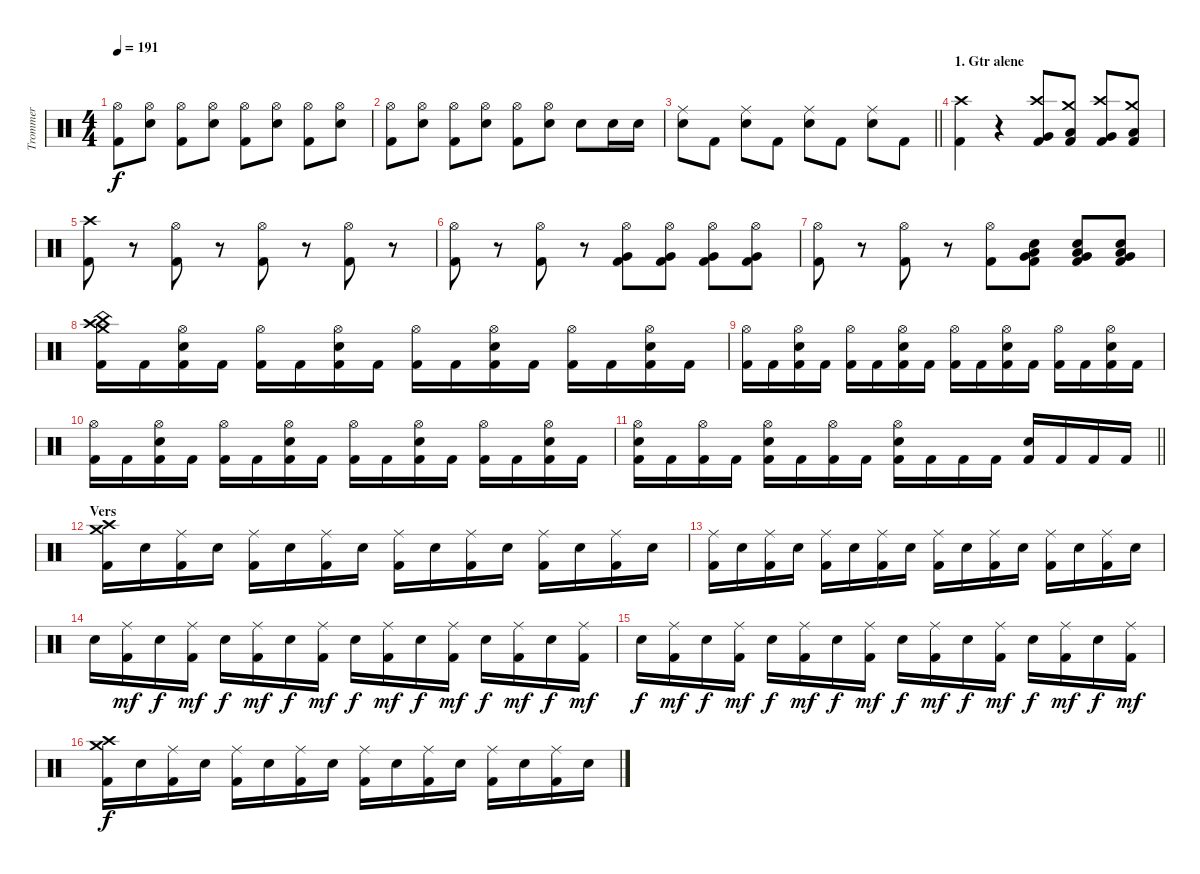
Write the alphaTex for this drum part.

\track ("Trommer" "Trommer") {instrument percussion}
\staff {score}
\articulation defaults
\ts (4 4)
\tempo 191
\clef neutral
\ks c
("Hi-Hat (open)" "Kick (hit) 2").8{dy f} ("Hi-Hat (open)" "Snare (hit) 2").8 ("Hi-Hat (open)" "Kick (hit) 2").8 ("Hi-Hat (open)" "Snare (hit) 2").8 ("Hi-Hat (open)" "Kick (hit) 2").8 ("Hi-Hat (open)" "Snare (hit) 2").8 ("Hi-Hat (open)" "Kick (hit) 2").8 ("Hi-Hat (open)" "Snare (hit) 2").8 |
("Hi-Hat (open)" "Kick (hit) 2").8 ("Hi-Hat (open)" "Snare (hit) 2").8 ("Hi-Hat (open)" "Kick (hit) 2").8 ("Hi-Hat (open)" "Snare (hit) 2").8 ("Hi-Hat (open)" "Kick (hit) 2").8 ("Hi-Hat (open)" "Snare (hit) 2").8 "Snare (hit) 2".8 "Snare (hit) 2".16 "Snare (hit) 2".16 |
\barLineRight lightlight
("Ride (middle)" "Snare (hit) 2").8 "Kick (hit) 2".8 ("Ride (middle)" "Snare (hit) 2").8 "Kick (hit) 2".8 ("Ride (middle)" "Snare (hit) 2").8 "Kick (hit) 2".8 ("Ride (middle)" "Snare (hit) 2").8 "Kick (hit) 2".8 |
\section ("" "1. Gtr alene")
("Crash high (hit)" "Kick (hit) 2").4 r.4 ("Crash high (hit)" "Very Low Tom (hit)" "Kick (hit) 2").8 ("Crash medium (hit)" "Low Floor Tom (hit)" "Kick (hit) 2").8 ("Crash high (hit)" "Very Low Tom (hit)" "Kick (hit) 2").8 ("Crash medium (hit)" "Low Floor Tom (hit)" "Kick (hit) 2").8 |
("Crash high (hit)" "Kick (hit) 2").8 r.8 ("Hi-Hat (open)" "Kick (hit) 2").8 r.8 ("Hi-Hat (open)" "Kick (hit) 2").8 r.8 ("Hi-Hat (open)" "Kick (hit) 2").8 r.8 |
("Hi-Hat (open)" "Kick (hit) 2").8 r.8 ("Hi-Hat (open)" "Kick (hit) 2").8 r.8 ("Hi-Hat (open)" "Very Low Tom (hit)" "Kick (hit) 2").8 ("Hi-Hat (open)" "Very Low Tom (hit)" "Kick (hit) 2").8 ("Hi-Hat (open)" "Very Low Tom (hit)" "Kick (hit) 2").8 ("Hi-Hat (open)" "Very Low Tom (hit)" "Kick (hit) 2").8 |
("Hi-Hat (open)" "Kick (hit) 2").8 r.8 ("Hi-Hat (open)" "Kick (hit) 2").8 r.8 ("Hi-Hat (open)" "Kick (hit) 2").8 ("Low Floor Tom (hit)" "Very Low Tom (hit)" "Snare (hit) 2" "Kick (hit) 2").8 ("Low Floor Tom (hit)" "Very Low Tom (hit)" "Snare (hit) 2" "Kick (hit) 2").8 ("Low Floor Tom (hit)" "Very Low Tom (hit)" "Snare (hit) 2" "Kick (hit) 2").8 |
("Crash medium (hit)" "Crash high (hit)" "China (hit)" "Kick (hit) 2").16 "Kick (hit) 2".16 ("Hi-Hat (open)" "Snare (hit) 2" "Kick (hit) 2").16 "Kick (hit) 2".16 ("Hi-Hat (open)" "Kick (hit) 2").16 "Kick (hit) 2".16 ("Hi-Hat (open)" "Snare (hit) 2" "Kick (hit) 2").16 "Kick (hit) 2".16 ("Hi-Hat (open)" "Kick (hit) 2").16 "Kick (hit) 2".16 ("Hi-Hat (open)" "Snare (hit) 2" "Kick (hit) 2").16 "Kick (hit) 2".16 ("Hi-Hat (open)" "Kick (hit) 2").16 "Kick (hit) 2".16 ("Hi-Hat (open)" "Snare (hit) 2" "Kick (hit) 2").16 "Kick (hit) 2".16 |
("Hi-Hat (open)" "Kick (hit) 2").16 "Kick (hit) 2".16 ("Hi-Hat (open)" "Snare (hit) 2" "Kick (hit) 2").16 "Kick (hit) 2".16 ("Hi-Hat (open)" "Kick (hit) 2").16 "Kick (hit) 2".16 ("Hi-Hat (open)" "Snare (hit) 2" "Kick (hit) 2").16 "Kick (hit) 2".16 ("Hi-Hat (open)" "Kick (hit) 2").16 "Kick (hit) 2".16 ("Hi-Hat (open)" "Snare (hit) 2" "Kick (hit) 2").16 "Kick (hit) 2".16 ("Hi-Hat (open)" "Kick (hit) 2").16 "Kick (hit) 2".16 ("Hi-Hat (open)" "Snare (hit) 2" "Kick (hit) 2").16 "Kick (hit) 2".16 |
("Hi-Hat (open)" "Kick (hit) 2").16 "Kick (hit) 2".16 ("Hi-Hat (open)" "Snare (hit) 2" "Kick (hit) 2").16 "Kick (hit) 2".16 ("Hi-Hat (open)" "Kick (hit) 2").16 "Kick (hit) 2".16 ("Hi-Hat (open)" "Snare (hit) 2" "Kick (hit) 2").16 "Kick (hit) 2".16 ("Hi-Hat (open)" "Kick (hit) 2").16 "Kick (hit) 2".16 ("Hi-Hat (open)" "Snare (hit) 2" "Kick (hit) 2").16 "Kick (hit) 2".16 ("Hi-Hat (open)" "Kick (hit) 2").16 "Kick (hit) 2".16 ("Hi-Hat (open)" "Snare (hit) 2" "Kick (hit) 2").16 "Kick (hit) 2".16 |
\barLineRight lightlight
("Hi-Hat (open)" "Snare (hit) 2" "Kick (hit) 2").16 "Kick (hit) 2".16 ("Hi-Hat (open)" "Kick (hit) 2").16 "Kick (hit) 2".16 ("Hi-Hat (open)" "Snare (hit) 2" "Kick (hit) 2").16 "Kick (hit) 2".16 ("Hi-Hat (open)" "Kick (hit) 2").16 "Kick (hit) 2".16 ("Hi-Hat (open)" "Snare (hit) 2" "Kick (hit) 2").16 "Kick (hit) 2".16 "Kick (hit) 2".16 "Kick (hit) 2".16 ("Snare (hit) 2" "Kick (hit) 2").16 "Kick (hit) 2".16 "Kick (hit) 2".16 "Kick (hit) 2".16 |
\section ("" "Vers")
("Crash medium (hit)" "Crash high (hit)" "Kick (hit) 2").16 "Snare (hit) 2".16 ("Ride (middle)" "Kick (hit) 2").16 "Snare (hit) 2".16 ("Ride (middle)" "Kick (hit) 2").16 "Snare (hit) 2".16 ("Ride (middle)" "Kick (hit) 2").16 "Snare (hit) 2".16 ("Ride (middle)" "Kick (hit) 2").16 "Snare (hit) 2".16 ("Ride (middle)" "Kick (hit) 2").16 "Snare (hit) 2".16 ("Ride (middle)" "Kick (hit) 2").16 "Snare (hit) 2".16 ("Ride (middle)" "Kick (hit) 2").16 "Snare (hit) 2".16 |
("Ride (middle)" "Kick (hit) 2").16 "Snare (hit) 2".16 ("Ride (middle)" "Kick (hit) 2").16 "Snare (hit) 2".16 ("Ride (middle)" "Kick (hit) 2").16 "Snare (hit) 2".16 ("Ride (middle)" "Kick (hit) 2").16 "Snare (hit) 2".16 ("Ride (middle)" "Kick (hit) 2").16 "Snare (hit) 2".16 ("Ride (middle)" "Kick (hit) 2").16 "Snare (hit) 2".16 ("Ride (middle)" "Kick (hit) 2").16 "Snare (hit) 2".16 ("Ride (middle)" "Kick (hit) 2").16 "Snare (hit) 2".16 |
"Snare (hit) 2".16 ("Ride (middle)" "Kick (hit) 2").16{dy mf} "Snare (hit) 2".16{dy f} ("Ride (middle)" "Kick (hit) 2").16{dy mf} "Snare (hit) 2".16{dy f} ("Ride (middle)" "Kick (hit) 2").16{dy mf} "Snare (hit) 2".16{dy f} ("Ride (middle)" "Kick (hit) 2").16{dy mf} "Snare (hit) 2".16{dy f} ("Ride (middle)" "Kick (hit) 2").16{dy mf} "Snare (hit) 2".16{dy f} ("Ride (middle)" "Kick (hit) 2").16{dy mf} "Snare (hit) 2".16{dy f} ("Ride (middle)" "Kick (hit) 2").16{dy mf} "Snare (hit) 2".16{dy f} ("Ride (middle)" "Kick (hit) 2").16{dy mf} |
"Snare (hit) 2".16{dy f} ("Ride (middle)" "Kick (hit) 2").16{dy mf} "Snare (hit) 2".16{dy f} ("Ride (middle)" "Kick (hit) 2").16{dy mf} "Snare (hit) 2".16{dy f} ("Ride (middle)" "Kick (hit) 2").16{dy mf} "Snare (hit) 2".16{dy f} ("Ride (middle)" "Kick (hit) 2").16{dy mf} "Snare (hit) 2".16{dy f} ("Ride (middle)" "Kick (hit) 2").16{dy mf} "Snare (hit) 2".16{dy f} ("Ride (middle)" "Kick (hit) 2").16{dy mf} "Snare (hit) 2".16{dy f} ("Ride (middle)" "Kick (hit) 2").16{dy mf} "Snare (hit) 2".16{dy f} ("Ride (middle)" "Kick (hit) 2").16{dy mf} |
("Crash medium (hit)" "Crash high (hit)" "Kick (hit) 2").16{dy f} "Snare (hit) 2".16 ("Ride (middle)" "Kick (hit) 2").16 "Snare (hit) 2".16 ("Ride (middle)" "Kick (hit) 2").16 "Snare (hit) 2".16 ("Ride (middle)" "Kick (hit) 2").16 "Snare (hit) 2".16 ("Ride (middle)" "Kick (hit) 2").16 "Snare (hit) 2".16 ("Ride (middle)" "Kick (hit) 2").16 "Snare (hit) 2".16 ("Ride (middle)" "Kick (hit) 2").16 "Snare (hit) 2".16 ("Ride (middle)" "Kick (hit) 2").16 "Snare (hit) 2".16
